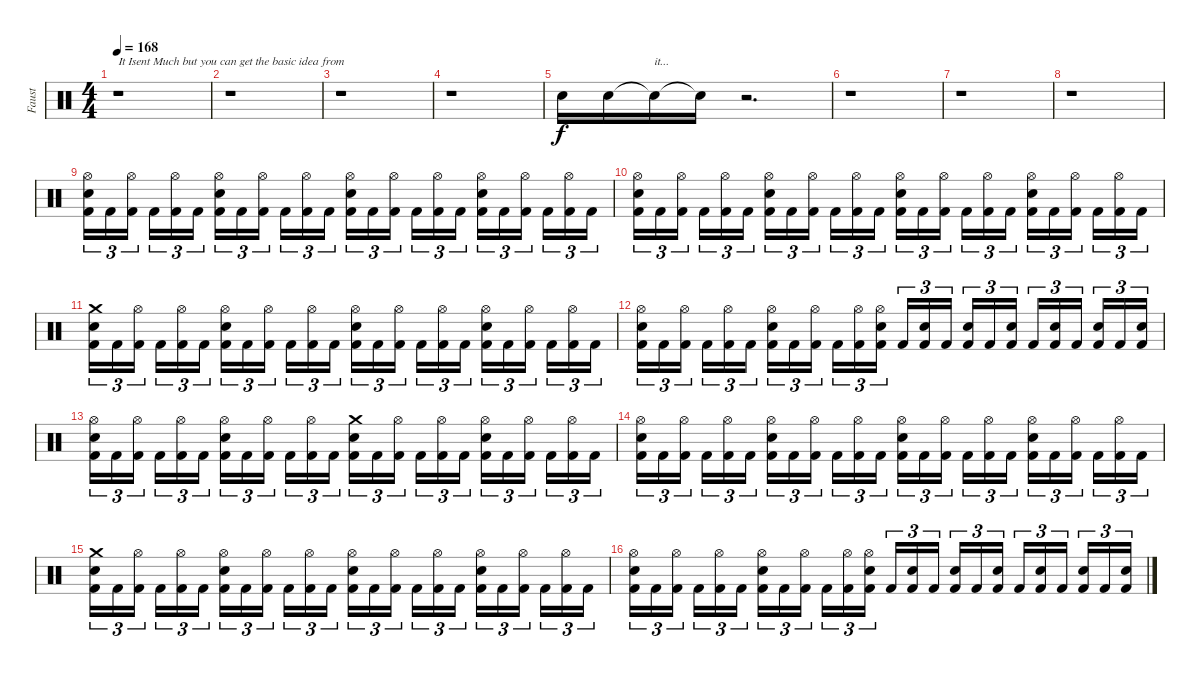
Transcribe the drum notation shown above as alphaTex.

\track ("Faust" "Faust") {instrument percussion}
\staff {score}
\articulation defaults
\ts (4 4)
\tempo 168
\clef neutral
\ks c
r.1{txt "It Isent Much but you can get the basic idea from " dy f} |
r.1 |
r.1 |
r.1 |
"Electric Snare (hit)".16 "Electric Snare (hit)".16 "Snare (hit)"{t}.16{txt "it..."} "Snare (hit)"{t}.16 r.2{d} |
r.1 |
r.1 |
r.1 |
("Hi-Hat (open)" "Electric Snare (hit)" "Kick (hit) 2").16{tu (3 2)} "Kick (hit) 2".16{tu (3 2)} ("Hi-Hat (open)" "Kick (hit) 2").16{tu (3 2)} "Kick (hit) 2".16{tu (3 2)} ("Hi-Hat (open)" "Kick (hit) 2").16{tu (3 2)} "Kick (hit) 2".16{tu (3 2)} ("Hi-Hat (open)" "Electric Snare (hit)" "Kick (hit) 2").16{tu (3 2)} "Kick (hit) 2".16{tu (3 2)} ("Hi-Hat (open)" "Kick (hit) 2").16{tu (3 2)} "Kick (hit) 2".16{tu (3 2)} ("Hi-Hat (open)" "Kick (hit) 2").16{tu (3 2)} "Kick (hit) 2".16{tu (3 2)} ("Hi-Hat (open)" "Electric Snare (hit)" "Kick (hit) 2").16{tu (3 2)} "Kick (hit) 2".16{tu (3 2)} ("Hi-Hat (open)" "Kick (hit) 2").16{tu (3 2)} "Kick (hit) 2".16{tu (3 2)} ("Hi-Hat (open)" "Kick (hit) 2").16{tu (3 2)} "Kick (hit) 2".16{tu (3 2)} ("Hi-Hat (open)" "Electric Snare (hit)" "Kick (hit) 2").16{tu (3 2)} "Kick (hit) 2".16{tu (3 2)} ("Hi-Hat (open)" "Kick (hit) 2").16{tu (3 2)} "Kick (hit) 2".16{tu (3 2)} ("Hi-Hat (open)" "Kick (hit) 2").16{tu (3 2)} "Kick (hit) 2".16{tu (3 2)} |
("Hi-Hat (open)" "Electric Snare (hit)" "Kick (hit) 2").16{tu (3 2)} "Kick (hit) 2".16{tu (3 2)} ("Hi-Hat (open)" "Kick (hit) 2").16{tu (3 2)} "Kick (hit) 2".16{tu (3 2)} ("Hi-Hat (open)" "Kick (hit) 2").16{tu (3 2)} "Kick (hit) 2".16{tu (3 2)} ("Hi-Hat (open)" "Electric Snare (hit)" "Kick (hit) 2").16{tu (3 2)} "Kick (hit) 2".16{tu (3 2)} ("Hi-Hat (open)" "Kick (hit) 2").16{tu (3 2)} "Kick (hit) 2".16{tu (3 2)} ("Hi-Hat (open)" "Kick (hit) 2").16{tu (3 2)} "Kick (hit) 2".16{tu (3 2)} ("Hi-Hat (open)" "Electric Snare (hit)" "Kick (hit) 2").16{tu (3 2)} "Kick (hit) 2".16{tu (3 2)} ("Hi-Hat (open)" "Kick (hit) 2").16{tu (3 2)} "Kick (hit) 2".16{tu (3 2)} ("Hi-Hat (open)" "Kick (hit) 2").16{tu (3 2)} "Kick (hit) 2".16{tu (3 2)} ("Hi-Hat (open)" "Electric Snare (hit)" "Kick (hit) 2").16{tu (3 2)} "Kick (hit) 2".16{tu (3 2)} ("Hi-Hat (open)" "Kick (hit) 2").16{tu (3 2)} "Kick (hit) 2".16{tu (3 2)} ("Hi-Hat (open)" "Kick (hit) 2").16{tu (3 2)} "Kick (hit) 2".16{tu (3 2)} |
("Crash medium (hit)" "Electric Snare (hit)" "Kick (hit) 2").16{tu (3 2)} "Kick (hit) 2".16{tu (3 2)} ("Hi-Hat (open)" "Kick (hit) 2").16{tu (3 2)} "Kick (hit) 2".16{tu (3 2)} ("Hi-Hat (open)" "Kick (hit) 2").16{tu (3 2)} "Kick (hit) 2".16{tu (3 2)} ("Hi-Hat (open)" "Electric Snare (hit)" "Kick (hit) 2").16{tu (3 2)} "Kick (hit) 2".16{tu (3 2)} ("Hi-Hat (open)" "Kick (hit) 2").16{tu (3 2)} "Kick (hit) 2".16{tu (3 2)} ("Hi-Hat (open)" "Kick (hit) 2").16{tu (3 2)} "Kick (hit) 2".16{tu (3 2)} ("Hi-Hat (open)" "Electric Snare (hit)" "Kick (hit) 2").16{tu (3 2)} "Kick (hit) 2".16{tu (3 2)} ("Hi-Hat (open)" "Kick (hit) 2").16{tu (3 2)} "Kick (hit) 2".16{tu (3 2)} ("Hi-Hat (open)" "Kick (hit) 2").16{tu (3 2)} "Kick (hit) 2".16{tu (3 2)} ("Hi-Hat (open)" "Electric Snare (hit)" "Kick (hit) 2").16{tu (3 2)} "Kick (hit) 2".16{tu (3 2)} ("Hi-Hat (open)" "Kick (hit) 2").16{tu (3 2)} "Kick (hit) 2".16{tu (3 2)} ("Hi-Hat (open)" "Kick (hit) 2").16{tu (3 2)} "Kick (hit) 2".16{tu (3 2)} |
("Hi-Hat (open)" "Electric Snare (hit)" "Kick (hit) 2").16{tu (3 2)} "Kick (hit) 2".16{tu (3 2)} ("Hi-Hat (open)" "Kick (hit) 2").16{tu (3 2)} "Kick (hit) 2".16{tu (3 2)} ("Hi-Hat (open)" "Kick (hit) 2").16{tu (3 2)} "Kick (hit) 2".16{tu (3 2)} ("Hi-Hat (open)" "Electric Snare (hit)" "Kick (hit) 2").16{tu (3 2)} "Kick (hit) 2".16{tu (3 2)} ("Hi-Hat (open)" "Kick (hit) 2").16{tu (3 2)} "Kick (hit) 2".16{tu (3 2)} ("Hi-Hat (open)" "Kick (hit) 2").16{tu (3 2)} ("Hi-Hat (open)" "Electric Snare (hit)" "Kick (hit) 2").16{tu (3 2)} "Kick (hit) 2".16{tu (3 2)} ("Electric Snare (hit)" "Kick (hit) 2").16{tu (3 2)} "Kick (hit) 2".16{tu (3 2)} ("Electric Snare (hit)" "Kick (hit) 2").16{tu (3 2)} "Kick (hit) 2".16{tu (3 2)} ("Electric Snare (hit)" "Kick (hit) 2").16{tu (3 2)} "Kick (hit) 2".16{tu (3 2)} ("Electric Snare (hit)" "Kick (hit) 2").16{tu (3 2)} "Kick (hit) 2".16{tu (3 2)} ("Electric Snare (hit)" "Kick (hit) 2").16{tu (3 2)} "Kick (hit) 2".16{tu (3 2)} ("Electric Snare (hit)" "Kick (hit) 2").16{tu (3 2)} |
("Hi-Hat (open)" "Electric Snare (hit)" "Kick (hit) 2").16{tu (3 2)} "Kick (hit) 2".16{tu (3 2)} ("Hi-Hat (open)" "Kick (hit) 2").16{tu (3 2)} "Kick (hit) 2".16{tu (3 2)} ("Hi-Hat (open)" "Kick (hit) 2").16{tu (3 2)} "Kick (hit) 2".16{tu (3 2)} ("Hi-Hat (open)" "Electric Snare (hit)" "Kick (hit) 2").16{tu (3 2)} "Kick (hit) 2".16{tu (3 2)} ("Hi-Hat (open)" "Kick (hit) 2").16{tu (3 2)} "Kick (hit) 2".16{tu (3 2)} ("Hi-Hat (open)" "Kick (hit) 2").16{tu (3 2)} "Kick (hit) 2".16{tu (3 2)} ("Crash medium (hit)" "Electric Snare (hit)" "Kick (hit) 2").16{tu (3 2)} "Kick (hit) 2".16{tu (3 2)} ("Hi-Hat (open)" "Kick (hit) 2").16{tu (3 2)} "Kick (hit) 2".16{tu (3 2)} ("Hi-Hat (open)" "Kick (hit) 2").16{tu (3 2)} "Kick (hit) 2".16{tu (3 2)} ("Hi-Hat (open)" "Electric Snare (hit)" "Kick (hit) 2").16{tu (3 2)} "Kick (hit) 2".16{tu (3 2)} ("Hi-Hat (open)" "Kick (hit) 2").16{tu (3 2)} "Kick (hit) 2".16{tu (3 2)} ("Hi-Hat (open)" "Kick (hit) 2").16{tu (3 2)} "Kick (hit) 2".16{tu (3 2)} |
("Hi-Hat (open)" "Electric Snare (hit)" "Kick (hit) 2").16{tu (3 2)} "Kick (hit) 2".16{tu (3 2)} ("Hi-Hat (open)" "Kick (hit) 2").16{tu (3 2)} "Kick (hit) 2".16{tu (3 2)} ("Hi-Hat (open)" "Kick (hit) 2").16{tu (3 2)} "Kick (hit) 2".16{tu (3 2)} ("Hi-Hat (open)" "Electric Snare (hit)" "Kick (hit) 2").16{tu (3 2)} "Kick (hit) 2".16{tu (3 2)} ("Hi-Hat (open)" "Kick (hit) 2").16{tu (3 2)} "Kick (hit) 2".16{tu (3 2)} ("Hi-Hat (open)" "Kick (hit) 2").16{tu (3 2)} "Kick (hit) 2".16{tu (3 2)} ("Hi-Hat (open)" "Electric Snare (hit)" "Kick (hit) 2").16{tu (3 2)} "Kick (hit) 2".16{tu (3 2)} ("Hi-Hat (open)" "Kick (hit) 2").16{tu (3 2)} "Kick (hit) 2".16{tu (3 2)} ("Hi-Hat (open)" "Kick (hit) 2").16{tu (3 2)} "Kick (hit) 2".16{tu (3 2)} ("Hi-Hat (open)" "Electric Snare (hit)" "Kick (hit) 2").16{tu (3 2)} "Kick (hit) 2".16{tu (3 2)} ("Hi-Hat (open)" "Kick (hit) 2").16{tu (3 2)} "Kick (hit) 2".16{tu (3 2)} ("Hi-Hat (open)" "Kick (hit) 2").16{tu (3 2)} "Kick (hit) 2".16{tu (3 2)} |
("Crash medium (hit)" "Electric Snare (hit)" "Kick (hit) 2").16{tu (3 2)} "Kick (hit) 2".16{tu (3 2)} ("Hi-Hat (open)" "Kick (hit) 2").16{tu (3 2)} "Kick (hit) 2".16{tu (3 2)} ("Hi-Hat (open)" "Kick (hit) 2").16{tu (3 2)} "Kick (hit) 2".16{tu (3 2)} ("Hi-Hat (open)" "Electric Snare (hit)" "Kick (hit) 2").16{tu (3 2)} "Kick (hit) 2".16{tu (3 2)} ("Hi-Hat (open)" "Kick (hit) 2").16{tu (3 2)} "Kick (hit) 2".16{tu (3 2)} ("Hi-Hat (open)" "Kick (hit) 2").16{tu (3 2)} "Kick (hit) 2".16{tu (3 2)} ("Hi-Hat (open)" "Electric Snare (hit)" "Kick (hit) 2").16{tu (3 2)} "Kick (hit) 2".16{tu (3 2)} ("Hi-Hat (open)" "Kick (hit) 2").16{tu (3 2)} "Kick (hit) 2".16{tu (3 2)} ("Hi-Hat (open)" "Kick (hit) 2").16{tu (3 2)} "Kick (hit) 2".16{tu (3 2)} ("Hi-Hat (open)" "Electric Snare (hit)" "Kick (hit) 2").16{tu (3 2)} "Kick (hit) 2".16{tu (3 2)} ("Hi-Hat (open)" "Kick (hit) 2").16{tu (3 2)} "Kick (hit) 2".16{tu (3 2)} ("Hi-Hat (open)" "Kick (hit) 2").16{tu (3 2)} "Kick (hit) 2".16{tu (3 2)} |
("Hi-Hat (open)" "Electric Snare (hit)" "Kick (hit) 2").16{tu (3 2)} "Kick (hit) 2".16{tu (3 2)} ("Hi-Hat (open)" "Kick (hit) 2").16{tu (3 2)} "Kick (hit) 2".16{tu (3 2)} ("Hi-Hat (open)" "Kick (hit) 2").16{tu (3 2)} "Kick (hit) 2".16{tu (3 2)} ("Hi-Hat (open)" "Electric Snare (hit)" "Kick (hit) 2").16{tu (3 2)} "Kick (hit) 2".16{tu (3 2)} ("Hi-Hat (open)" "Kick (hit) 2").16{tu (3 2)} "Kick (hit) 2".16{tu (3 2)} ("Hi-Hat (open)" "Kick (hit) 2").16{tu (3 2)} ("Hi-Hat (open)" "Electric Snare (hit)" "Kick (hit) 2").16{tu (3 2)} "Kick (hit) 2".16{tu (3 2)} ("Electric Snare (hit)" "Kick (hit) 2").16{tu (3 2)} "Kick (hit) 2".16{tu (3 2)} ("Electric Snare (hit)" "Kick (hit) 2").16{tu (3 2)} "Kick (hit) 2".16{tu (3 2)} ("Electric Snare (hit)" "Kick (hit) 2").16{tu (3 2)} "Kick (hit) 2".16{tu (3 2)} ("Electric Snare (hit)" "Kick (hit) 2").16{tu (3 2)} "Kick (hit) 2".16{tu (3 2)} ("Electric Snare (hit)" "Kick (hit) 2").16{tu (3 2)} "Kick (hit) 2".16{tu (3 2)} ("Electric Snare (hit)" "Kick (hit) 2").16{tu (3 2)}
